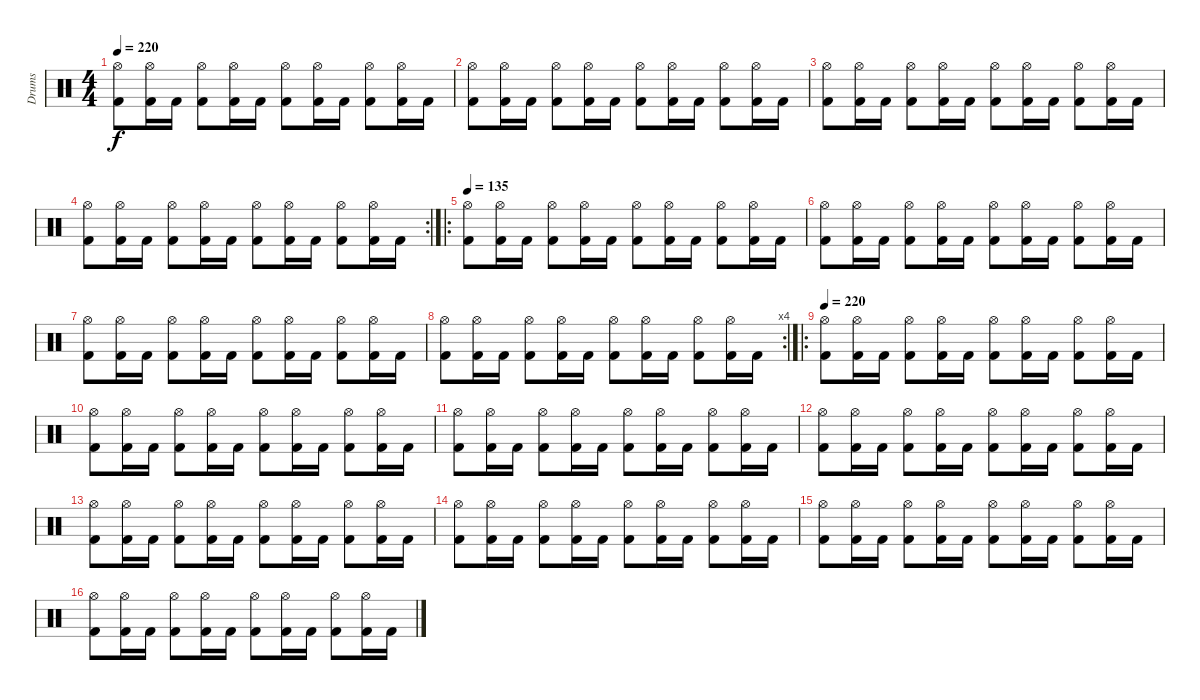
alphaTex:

\track ("Drums" "Drums") {instrument percussion}
\staff {score}
\articulation defaults
\ts (4 4)
\tempo 220
\clef neutral
\ks c
("Hi-Hat (open)" "Kick (hit) 2").8{dy f} ("Hi-Hat (open)" "Kick (hit) 2").16 "Kick (hit) 2".16 ("Hi-Hat (open)" "Kick (hit) 2").8 ("Hi-Hat (open)" "Kick (hit) 2").16 "Kick (hit) 2".16 ("Hi-Hat (open)" "Kick (hit) 2").8 ("Hi-Hat (open)" "Kick (hit) 2").16 "Kick (hit) 2".16 ("Hi-Hat (open)" "Kick (hit) 2").8 ("Hi-Hat (open)" "Kick (hit) 2").16 "Kick (hit) 2".16 |
("Hi-Hat (open)" "Kick (hit) 2").8 ("Hi-Hat (open)" "Kick (hit) 2").16 "Kick (hit) 2".16 ("Hi-Hat (open)" "Kick (hit) 2").8 ("Hi-Hat (open)" "Kick (hit) 2").16 "Kick (hit) 2".16 ("Hi-Hat (open)" "Kick (hit) 2").8 ("Hi-Hat (open)" "Kick (hit) 2").16 "Kick (hit) 2".16 ("Hi-Hat (open)" "Kick (hit) 2").8 ("Hi-Hat (open)" "Kick (hit) 2").16 "Kick (hit) 2".16 |
("Hi-Hat (open)" "Kick (hit) 2").8 ("Hi-Hat (open)" "Kick (hit) 2").16 "Kick (hit) 2".16 ("Hi-Hat (open)" "Kick (hit) 2").8 ("Hi-Hat (open)" "Kick (hit) 2").16 "Kick (hit) 2".16 ("Hi-Hat (open)" "Kick (hit) 2").8 ("Hi-Hat (open)" "Kick (hit) 2").16 "Kick (hit) 2".16 ("Hi-Hat (open)" "Kick (hit) 2").8 ("Hi-Hat (open)" "Kick (hit) 2").16 "Kick (hit) 2".16 |
\rc 2
("Hi-Hat (open)" "Kick (hit) 2").8 ("Hi-Hat (open)" "Kick (hit) 2").16 "Kick (hit) 2".16 ("Hi-Hat (open)" "Kick (hit) 2").8 ("Hi-Hat (open)" "Kick (hit) 2").16 "Kick (hit) 2".16 ("Hi-Hat (open)" "Kick (hit) 2").8 ("Hi-Hat (open)" "Kick (hit) 2").16 "Kick (hit) 2".16 ("Hi-Hat (open)" "Kick (hit) 2").8 ("Hi-Hat (open)" "Kick (hit) 2").16 "Kick (hit) 2".16 |
\ro
\tempo 135
("Hi-Hat (open)" "Kick (hit) 2").8 ("Hi-Hat (open)" "Kick (hit) 2").16 "Kick (hit) 2".16 ("Hi-Hat (open)" "Kick (hit) 2").8 ("Hi-Hat (open)" "Kick (hit) 2").16 "Kick (hit) 2".16 ("Hi-Hat (open)" "Kick (hit) 2").8 ("Hi-Hat (open)" "Kick (hit) 2").16 "Kick (hit) 2".16 ("Hi-Hat (open)" "Kick (hit) 2").8 ("Hi-Hat (open)" "Kick (hit) 2").16 "Kick (hit) 2".16 |
("Hi-Hat (open)" "Kick (hit) 2").8 ("Hi-Hat (open)" "Kick (hit) 2").16 "Kick (hit) 2".16 ("Hi-Hat (open)" "Kick (hit) 2").8 ("Hi-Hat (open)" "Kick (hit) 2").16 "Kick (hit) 2".16 ("Hi-Hat (open)" "Kick (hit) 2").8 ("Hi-Hat (open)" "Kick (hit) 2").16 "Kick (hit) 2".16 ("Hi-Hat (open)" "Kick (hit) 2").8 ("Hi-Hat (open)" "Kick (hit) 2").16 "Kick (hit) 2".16 |
("Hi-Hat (open)" "Kick (hit) 2").8 ("Hi-Hat (open)" "Kick (hit) 2").16 "Kick (hit) 2".16 ("Hi-Hat (open)" "Kick (hit) 2").8 ("Hi-Hat (open)" "Kick (hit) 2").16 "Kick (hit) 2".16 ("Hi-Hat (open)" "Kick (hit) 2").8 ("Hi-Hat (open)" "Kick (hit) 2").16 "Kick (hit) 2".16 ("Hi-Hat (open)" "Kick (hit) 2").8 ("Hi-Hat (open)" "Kick (hit) 2").16 "Kick (hit) 2".16 |
\rc 4
("Hi-Hat (open)" "Kick (hit) 2").8 ("Hi-Hat (open)" "Kick (hit) 2").16 "Kick (hit) 2".16 ("Hi-Hat (open)" "Kick (hit) 2").8 ("Hi-Hat (open)" "Kick (hit) 2").16 "Kick (hit) 2".16 ("Hi-Hat (open)" "Kick (hit) 2").8 ("Hi-Hat (open)" "Kick (hit) 2").16 "Kick (hit) 2".16 ("Hi-Hat (open)" "Kick (hit) 2").8 ("Hi-Hat (open)" "Kick (hit) 2").16 "Kick (hit) 2".16 |
\ro
\tempo 220
("Hi-Hat (open)" "Kick (hit) 2").8 ("Hi-Hat (open)" "Kick (hit) 2").16 "Kick (hit) 2".16 ("Hi-Hat (open)" "Kick (hit) 2").8 ("Hi-Hat (open)" "Kick (hit) 2").16 "Kick (hit) 2".16 ("Hi-Hat (open)" "Kick (hit) 2").8 ("Hi-Hat (open)" "Kick (hit) 2").16 "Kick (hit) 2".16 ("Hi-Hat (open)" "Kick (hit) 2").8 ("Hi-Hat (open)" "Kick (hit) 2").16 "Kick (hit) 2".16 |
("Hi-Hat (open)" "Kick (hit) 2").8 ("Hi-Hat (open)" "Kick (hit) 2").16 "Kick (hit) 2".16 ("Hi-Hat (open)" "Kick (hit) 2").8 ("Hi-Hat (open)" "Kick (hit) 2").16 "Kick (hit) 2".16 ("Hi-Hat (open)" "Kick (hit) 2").8 ("Hi-Hat (open)" "Kick (hit) 2").16 "Kick (hit) 2".16 ("Hi-Hat (open)" "Kick (hit) 2").8 ("Hi-Hat (open)" "Kick (hit) 2").16 "Kick (hit) 2".16 |
("Hi-Hat (open)" "Kick (hit) 2").8 ("Hi-Hat (open)" "Kick (hit) 2").16 "Kick (hit) 2".16 ("Hi-Hat (open)" "Kick (hit) 2").8 ("Hi-Hat (open)" "Kick (hit) 2").16 "Kick (hit) 2".16 ("Hi-Hat (open)" "Kick (hit) 2").8 ("Hi-Hat (open)" "Kick (hit) 2").16 "Kick (hit) 2".16 ("Hi-Hat (open)" "Kick (hit) 2").8 ("Hi-Hat (open)" "Kick (hit) 2").16 "Kick (hit) 2".16 |
("Hi-Hat (open)" "Kick (hit) 2").8 ("Hi-Hat (open)" "Kick (hit) 2").16 "Kick (hit) 2".16 ("Hi-Hat (open)" "Kick (hit) 2").8 ("Hi-Hat (open)" "Kick (hit) 2").16 "Kick (hit) 2".16 ("Hi-Hat (open)" "Kick (hit) 2").8 ("Hi-Hat (open)" "Kick (hit) 2").16 "Kick (hit) 2".16 ("Hi-Hat (open)" "Kick (hit) 2").8 ("Hi-Hat (open)" "Kick (hit) 2").16 "Kick (hit) 2".16 |
("Hi-Hat (open)" "Kick (hit) 2").8 ("Hi-Hat (open)" "Kick (hit) 2").16 "Kick (hit) 2".16 ("Hi-Hat (open)" "Kick (hit) 2").8 ("Hi-Hat (open)" "Kick (hit) 2").16 "Kick (hit) 2".16 ("Hi-Hat (open)" "Kick (hit) 2").8 ("Hi-Hat (open)" "Kick (hit) 2").16 "Kick (hit) 2".16 ("Hi-Hat (open)" "Kick (hit) 2").8 ("Hi-Hat (open)" "Kick (hit) 2").16 "Kick (hit) 2".16 |
("Hi-Hat (open)" "Kick (hit) 2").8 ("Hi-Hat (open)" "Kick (hit) 2").16 "Kick (hit) 2".16 ("Hi-Hat (open)" "Kick (hit) 2").8 ("Hi-Hat (open)" "Kick (hit) 2").16 "Kick (hit) 2".16 ("Hi-Hat (open)" "Kick (hit) 2").8 ("Hi-Hat (open)" "Kick (hit) 2").16 "Kick (hit) 2".16 ("Hi-Hat (open)" "Kick (hit) 2").8 ("Hi-Hat (open)" "Kick (hit) 2").16 "Kick (hit) 2".16 |
("Hi-Hat (open)" "Kick (hit) 2").8 ("Hi-Hat (open)" "Kick (hit) 2").16 "Kick (hit) 2".16 ("Hi-Hat (open)" "Kick (hit) 2").8 ("Hi-Hat (open)" "Kick (hit) 2").16 "Kick (hit) 2".16 ("Hi-Hat (open)" "Kick (hit) 2").8 ("Hi-Hat (open)" "Kick (hit) 2").16 "Kick (hit) 2".16 ("Hi-Hat (open)" "Kick (hit) 2").8 ("Hi-Hat (open)" "Kick (hit) 2").16 "Kick (hit) 2".16 |
("Hi-Hat (open)" "Kick (hit) 2").8 ("Hi-Hat (open)" "Kick (hit) 2").16 "Kick (hit) 2".16 ("Hi-Hat (open)" "Kick (hit) 2").8 ("Hi-Hat (open)" "Kick (hit) 2").16 "Kick (hit) 2".16 ("Hi-Hat (open)" "Kick (hit) 2").8 ("Hi-Hat (open)" "Kick (hit) 2").16 "Kick (hit) 2".16 ("Hi-Hat (open)" "Kick (hit) 2").8 ("Hi-Hat (open)" "Kick (hit) 2").16 "Kick (hit) 2".16
